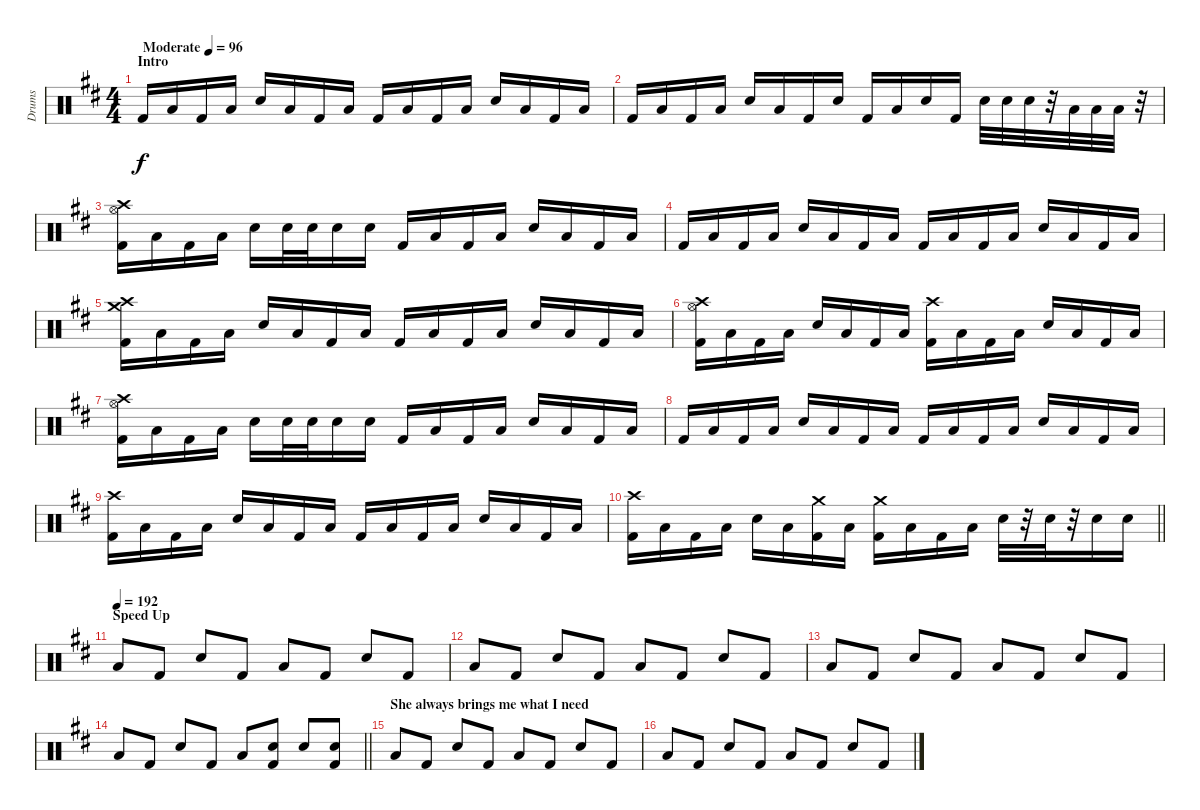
\track ("Drums" "Drums") {instrument percussion}
\staff {score}
\articulation defaults
\ts (4 4)
\section ("" "Intro")
\tempo (96 "Moderate")
\clef neutral
\ks d "Kick (hit) 2".16{dy f} "Low Floor Tom (hit)".16 "Kick (hit) 2".16 "Low Floor Tom (hit)".16 "Snare (hit) 2".16 "Low Floor Tom (hit)".16 "Kick (hit) 2".16 "Low Floor Tom (hit)".16 "Kick (hit) 2".16 "Low Floor Tom (hit)".16 "Kick (hit) 2".16 "Low Floor Tom (hit)".16 "Snare (hit) 2".16 "Low Floor Tom (hit)".16 "Kick (hit) 2".16 "Low Floor Tom (hit)".16
|
"Kick (hit) 2".16 "Low Floor Tom (hit)".16 "Kick (hit) 2".16 "Low Floor Tom (hit)".16 "Snare (hit) 2".16 "Low Floor Tom (hit)".16 "Kick (hit) 2".16 "Snare (hit) 2".16 "Kick (hit) 2".16 "Low Floor Tom (hit)".16 "Snare (hit) 2".16 "Kick (hit) 2".16 "Snare (hit) 2".32 "Snare (hit) 2".32 "Snare (hit) 2".32 r.32 "Low Tom (hit)".32 "Low Tom (hit)".32 "Low Tom (hit)".32 r.32 |
("Crash high (hit)" "Hi-Hat (open)" "Kick (hit) 2").16 "Low Tom (hit)".16 "Kick (hit) 2".16 "Low Tom (hit)".16 "Snare (hit) 2".16 "Electric Snare (hit)".32 "Electric Snare (hit)".32 "Electric Snare (hit)".16 "Snare (hit) 2".16 "Kick (hit) 2".16 "Low Tom (hit)".16 "Kick (hit) 2".16 "Low Tom (hit)".16 "Snare (hit) 2".16 "Low Tom (hit)".16 "Kick (hit) 2".16 "Low Tom (hit)".16 |
"Kick (hit) 2".16 "Low Tom (hit)".16 "Kick (hit) 2".16 "Low Tom (hit)".16 "Snare (hit) 2".16 "Low Tom (hit)".16 "Kick (hit) 2".16 "Low Tom (hit)".16 "Kick (hit) 2".16 "Low Tom (hit)".16 "Kick (hit) 2".16 "Low Tom (hit)".16 "Snare (hit) 2".16 "Low Tom (hit)".16 "Kick (hit) 2".16 "Low Tom (hit)".16 |
("Crash high (hit)" "Crash medium (hit)" "Kick (hit) 2").16 "Low Tom (hit)".16 "Kick (hit) 2".16 "Low Tom (hit)".16 "Snare (hit) 2".16 "Low Tom (hit)".16 "Kick (hit) 2".16 "Low Tom (hit)".16 "Kick (hit) 2".16 "Low Tom (hit)".16 "Kick (hit) 2".16 "Low Tom (hit)".16 "Snare (hit) 2".16 "Low Tom (hit)".16 "Kick (hit) 2".16 "Low Tom (hit)".16 |
("Crash high (hit)" "Hi-Hat (open)" "Kick (hit) 2").16 "Low Tom (hit)".16 "Kick (hit) 2".16 "Low Tom (hit)".16 "Snare (hit) 2".16 "Low Tom (hit)".16 "Kick (hit) 2".16 "Low Tom (hit)".16 ("Crash high (hit)" "Kick (hit) 2").16 "Low Tom (hit)".16 "Kick (hit) 2".16 "Low Tom (hit)".16 "Snare (hit) 2".16 "Low Tom (hit)".16 "Kick (hit) 2".16 "Low Tom (hit)".16 |
("Crash high (hit)" "Hi-Hat (open)" "Kick (hit) 2").16 "Low Tom (hit)".16 "Kick (hit) 2".16 "Low Tom (hit)".16 "Snare (hit) 2".16 "Electric Snare (hit)".32 "Electric Snare (hit)".32 "Electric Snare (hit)".16 "Snare (hit) 2".16 "Kick (hit) 2".16 "Low Tom (hit)".16 "Kick (hit) 2".16 "Low Tom (hit)".16 "Snare (hit) 2".16 "Low Tom (hit)".16 "Kick (hit) 2".16 "Low Tom (hit)".16 |
"Kick (hit) 2".16 "Low Tom (hit)".16 "Kick (hit) 2".16 "Low Tom (hit)".16 "Snare (hit) 2".16 "Low Tom (hit)".16 "Kick (hit) 2".16 "Low Tom (hit)".16 "Kick (hit) 2".16 "Low Tom (hit)".16 "Kick (hit) 2".16 "Low Tom (hit)".16 "Snare (hit) 2".16 "Low Tom (hit)".16 "Kick (hit) 2".16 "Low Tom (hit)".16 |
("Crash high (hit)" "Kick (hit) 2").16 "Low Tom (hit)".16 "Kick (hit) 2".16 "Low Tom (hit)".16 "Snare (hit) 2".16 "Low Tom (hit)".16 "Kick (hit) 2".16 "Low Tom (hit)".16 "Kick (hit) 2".16 "Low Tom (hit)".16 "Kick (hit) 2".16 "Low Tom (hit)".16 "Snare (hit) 2".16 "Low Tom (hit)".16 "Kick (hit) 2".16 "Low Tom (hit)".16 |
\barLineRight lightlight
("Crash high (hit)" "Kick (hit) 2").16 "Low Tom (hit)".16 "Kick (hit) 2".16 "Low Tom (hit)".16 "Snare (hit) 2".16 "Low Tom (hit)".16 ("Crash medium (hit)" "Kick (hit) 2").16 "Low Tom (hit)".16 ("Crash medium (hit)" "Kick (hit) 2").16 "Low Tom (hit)".16 "Kick (hit) 2".16 "Low Tom (hit)".16 "Snare (hit) 2".32 r.32 "Snare (hit) 2".32 r.32 "Snare (hit) 2".16 "Snare (hit) 2".16 |
\section ("" "Speed Up")
\tempo (192)
"Low Tom (hit)".8 "Kick (hit) 2".8 "Snare (hit) 2".8 "Kick (hit) 2".8 "Low Tom (hit)".8 "Kick (hit) 2".8 "Snare (hit) 2".8 "Kick (hit) 2".8 |
"Low Tom (hit)".8 "Kick (hit) 2".8 "Snare (hit) 2".8 "Kick (hit) 2".8 "Low Tom (hit)".8 "Kick (hit) 2".8 "Snare (hit) 2".8 "Kick (hit) 2".8 |
"Low Tom (hit)".8 "Kick (hit) 2".8 "Snare (hit) 2".8 "Kick (hit) 2".8 "Low Tom (hit)".8 "Kick (hit) 2".8 "Snare (hit) 2".8 "Kick (hit) 2".8 |
\barLineRight lightlight "Low Tom (hit)".8 "Kick (hit) 2".8 "Snare (hit) 2".8 "Kick (hit) 2".8 "Low Tom (hit)".8
("Snare (hit) 2" "Kick (hit) 2").8 "Snare (hit) 2".8 ("Snare (hit) 2" "Kick (hit) 2").8 |
\section ("" "She always brings me what I need")
"Low Tom (hit)".8 "Kick (hit) 2".8 "Snare (hit) 2".8 "Kick (hit) 2".8 "Low Tom (hit)".8 "Kick (hit) 2".8 "Snare (hit) 2".8 "Kick (hit) 2".8 |
"Low Tom (hit)".8 "Kick (hit) 2".8 "Snare (hit) 2".8 "Kick (hit) 2".8 "Low Tom (hit)".8 "Kick (hit) 2".8 "Snare (hit) 2".8 "Kick (hit) 2".8
